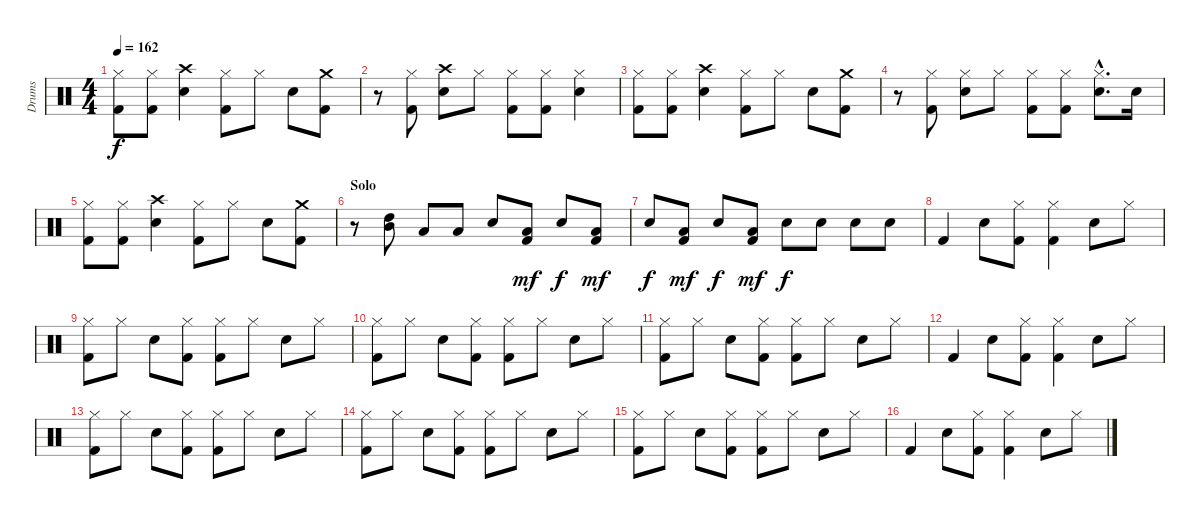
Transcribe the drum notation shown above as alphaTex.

\track ("Drums" "Drums") {instrument percussion}
\staff {score}
\articulation defaults
\ts (4 4)
\tempo 162
\clef neutral
\ks c
("Hi-Hat (closed)" "Kick (hit) 2").8{dy f} ("Hi-Hat (closed)" "Kick (hit) 2").8 ("Crash high (hit)" "Snare (hit) 2").4 ("Hi-Hat (closed)" "Kick (hit) 2").8 "Hi-Hat (closed)".8 "Snare (hit) 2".8 ("Crash medium (hit)" "Kick (hit) 2").8 |
r.8 ("Hi-Hat (closed)" "Kick (hit) 2").8 ("Crash high (hit)" "Snare (hit) 2").8 "Hi-Hat (closed)".8 ("Hi-Hat (closed)" "Kick (hit) 2").8 ("Hi-Hat (closed)" "Kick (hit) 2").8 ("Hi-Hat (closed)" "Snare (hit) 2").4 |
("Hi-Hat (closed)" "Kick (hit) 2").8 ("Hi-Hat (closed)" "Kick (hit) 2").8 ("Crash high (hit)" "Snare (hit) 2").4 ("Hi-Hat (closed)" "Kick (hit) 2").8 "Hi-Hat (closed)".8 "Snare (hit) 2".8 ("Crash medium (hit)" "Kick (hit) 2").8 |
r.8 ("Hi-Hat (closed)" "Kick (hit) 2").8 ("Hi-Hat (closed)" "Snare (hit) 2").8 "Hi-Hat (closed)".8 ("Hi-Hat (closed)" "Kick (hit) 2").8 ("Hi-Hat (closed)" "Kick (hit) 2").8 ("Hi-Hat (closed)"{hac} "Snare (hit) 2"{hac}).8{d} "Snare (hit) 2".16 |
("Hi-Hat (closed)" "Kick (hit) 2").8 ("Hi-Hat (closed)" "Kick (hit) 2").8 ("Crash high (hit)" "Snare (hit) 2").4 ("Hi-Hat (closed)" "Kick (hit) 2").8 "Hi-Hat (closed)".8 "Snare (hit) 2".8 ("Crash medium (hit)" "Kick (hit) 2").8 |
\section ("" "Solo")
r.8 ("Mid Tom (hit)" "High Tom (hit)").8 "Low Tom (hit)".8 "Low Tom (hit)".8 "Snare (hit) 2".8 ("Low Tom (hit)" "Kick (hit) 2").8{dy mf} "Snare (hit) 2".8{dy f} ("Low Tom (hit)" "Kick (hit) 2").8{dy mf} |
"Snare (hit) 2".8{dy f} ("Low Tom (hit)" "Kick (hit) 2").8{dy mf} "Snare (hit) 2".8{dy f} ("Low Tom (hit)" "Kick (hit) 2").8{dy mf} "Snare (hit) 2".8{dy f} "Snare (hit) 2".8 "Snare (hit) 2".8 "Snare (hit) 2".8 |
"Kick (hit) 2".4 "Snare (hit) 2".8 ("Hi-Hat (closed)" "Kick (hit) 2").8 ("Hi-Hat (closed)" "Kick (hit) 2").4 "Snare (hit) 2".8 "Hi-Hat (closed)".8 |
("Hi-Hat (closed)" "Kick (hit) 2").8 "Hi-Hat (closed)".8 "Snare (hit) 2".8 ("Hi-Hat (closed)" "Kick (hit) 2").8 ("Hi-Hat (closed)" "Kick (hit) 2").8 "Hi-Hat (closed)".8 "Snare (hit) 2".8 "Hi-Hat (closed)".8 |
("Hi-Hat (closed)" "Kick (hit) 2").8 "Hi-Hat (closed)".8 "Snare (hit) 2".8 ("Hi-Hat (closed)" "Kick (hit) 2").8 ("Hi-Hat (closed)" "Kick (hit) 2").8 "Hi-Hat (closed)".8 "Snare (hit) 2".8 "Hi-Hat (closed)".8 |
("Hi-Hat (closed)" "Kick (hit) 2").8 "Hi-Hat (closed)".8 "Snare (hit) 2".8 ("Hi-Hat (closed)" "Kick (hit) 2").8 ("Hi-Hat (closed)" "Kick (hit) 2").8 "Hi-Hat (closed)".8 "Snare (hit) 2".8 "Hi-Hat (closed)".8 |
"Kick (hit) 2".4 "Snare (hit) 2".8 ("Hi-Hat (closed)" "Kick (hit) 2").8 ("Hi-Hat (closed)" "Kick (hit) 2").4 "Snare (hit) 2".8 "Hi-Hat (closed)".8 |
("Hi-Hat (closed)" "Kick (hit) 2").8 "Hi-Hat (closed)".8 "Snare (hit) 2".8 ("Hi-Hat (closed)" "Kick (hit) 2").8 ("Hi-Hat (closed)" "Kick (hit) 2").8 "Hi-Hat (closed)".8 "Snare (hit) 2".8 "Hi-Hat (closed)".8 |
("Hi-Hat (closed)" "Kick (hit) 2").8 "Hi-Hat (closed)".8 "Snare (hit) 2".8 ("Hi-Hat (closed)" "Kick (hit) 2").8 ("Hi-Hat (closed)" "Kick (hit) 2").8 "Hi-Hat (closed)".8 "Snare (hit) 2".8 "Hi-Hat (closed)".8 |
("Hi-Hat (closed)" "Kick (hit) 2").8 "Hi-Hat (closed)".8 "Snare (hit) 2".8 ("Hi-Hat (closed)" "Kick (hit) 2").8 ("Hi-Hat (closed)" "Kick (hit) 2").8 "Hi-Hat (closed)".8 "Snare (hit) 2".8 "Hi-Hat (closed)".8 |
"Kick (hit) 2".4 "Snare (hit) 2".8 ("Hi-Hat (closed)" "Kick (hit) 2").8 ("Hi-Hat (closed)" "Kick (hit) 2").4 "Snare (hit) 2".8 "Hi-Hat (closed)".8
